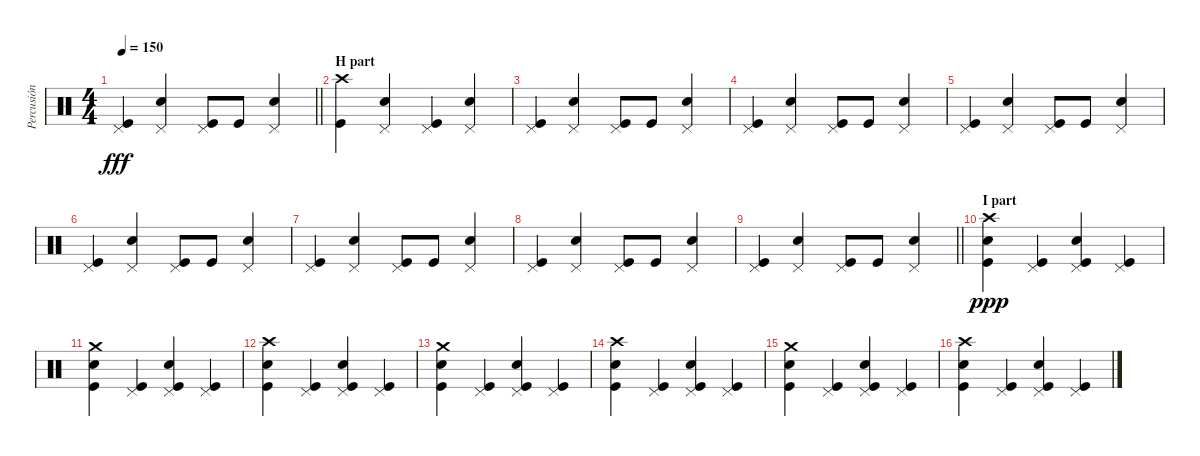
\track ("Percusión" "Percusión") {instrument percussion}
\staff {score}
\articulation defaults
\ts (4 4)
\tempo 150
\clef neutral
\barLineRight lightlight
\ks c
("Pedal Hi-Hat (hit)" "Kick (hit)").4{dy fff} ("Pedal Hi-Hat (hit)" "Electric Snare (hit)").4 ("Pedal Hi-Hat (hit)" "Kick (hit)").8 "Kick (hit)".8 ("Pedal Hi-Hat (hit)" "Electric Snare (hit)").4 |
\section ("" "H part")
("Crash high (hit)" "Kick (hit)").4 ("Pedal Hi-Hat (hit)" "Electric Snare (hit)").4 ("Pedal Hi-Hat (hit)" "Kick (hit)").4 ("Pedal Hi-Hat (hit)" "Electric Snare (hit)").4 |
("Pedal Hi-Hat (hit)" "Kick (hit)").4 ("Pedal Hi-Hat (hit)" "Electric Snare (hit)").4 ("Pedal Hi-Hat (hit)" "Kick (hit)").8 "Kick (hit)".8 ("Pedal Hi-Hat (hit)" "Electric Snare (hit)").4 |
("Pedal Hi-Hat (hit)" "Kick (hit)").4 ("Pedal Hi-Hat (hit)" "Electric Snare (hit)").4 ("Pedal Hi-Hat (hit)" "Kick (hit)").8 "Kick (hit)".8 ("Pedal Hi-Hat (hit)" "Electric Snare (hit)").4 |
("Pedal Hi-Hat (hit)" "Kick (hit)").4 ("Pedal Hi-Hat (hit)" "Electric Snare (hit)").4 ("Pedal Hi-Hat (hit)" "Kick (hit)").8 "Kick (hit)".8 ("Pedal Hi-Hat (hit)" "Electric Snare (hit)").4 |
("Pedal Hi-Hat (hit)" "Kick (hit)").4 ("Pedal Hi-Hat (hit)" "Electric Snare (hit)").4 ("Pedal Hi-Hat (hit)" "Kick (hit)").8 "Kick (hit)".8 ("Pedal Hi-Hat (hit)" "Electric Snare (hit)").4 |
("Pedal Hi-Hat (hit)" "Kick (hit)").4 ("Pedal Hi-Hat (hit)" "Electric Snare (hit)").4 ("Pedal Hi-Hat (hit)" "Kick (hit)").8 "Kick (hit)".8 ("Pedal Hi-Hat (hit)" "Electric Snare (hit)").4 |
("Pedal Hi-Hat (hit)" "Kick (hit)").4 ("Pedal Hi-Hat (hit)" "Electric Snare (hit)").4 ("Pedal Hi-Hat (hit)" "Kick (hit)").8 "Kick (hit)".8 ("Pedal Hi-Hat (hit)" "Electric Snare (hit)").4 |
\barLineRight lightlight
("Pedal Hi-Hat (hit)" "Kick (hit)").4 ("Pedal Hi-Hat (hit)" "Electric Snare (hit)").4 ("Pedal Hi-Hat (hit)" "Kick (hit)").8 "Kick (hit)".8 ("Pedal Hi-Hat (hit)" "Electric Snare (hit)").4 |
\section ("" "I part")
("Crash high (hit)" "Electric Snare (hit)" "Kick (hit)").4{dy ppp} ("Pedal Hi-Hat (hit)" "Kick (hit)").4 ("Pedal Hi-Hat (hit)" "Electric Snare (hit)" "Kick (hit)").4 ("Pedal Hi-Hat (hit)" "Kick (hit)").4 |
("Crash medium (hit)" "Electric Snare (hit)" "Kick (hit)").4 ("Pedal Hi-Hat (hit)" "Kick (hit)").4 ("Pedal Hi-Hat (hit)" "Electric Snare (hit)" "Kick (hit)").4 ("Pedal Hi-Hat (hit)" "Kick (hit)").4 |
("Crash high (hit)" "Electric Snare (hit)" "Kick (hit)").4 ("Pedal Hi-Hat (hit)" "Kick (hit)").4 ("Pedal Hi-Hat (hit)" "Electric Snare (hit)" "Kick (hit)").4 ("Pedal Hi-Hat (hit)" "Kick (hit)").4 |
("Crash medium (hit)" "Electric Snare (hit)" "Kick (hit)").4 ("Pedal Hi-Hat (hit)" "Kick (hit)").4 ("Pedal Hi-Hat (hit)" "Electric Snare (hit)" "Kick (hit)").4 ("Pedal Hi-Hat (hit)" "Kick (hit)").4 |
("Crash high (hit)" "Electric Snare (hit)" "Kick (hit)").4 ("Pedal Hi-Hat (hit)" "Kick (hit)").4 ("Pedal Hi-Hat (hit)" "Electric Snare (hit)" "Kick (hit)").4 ("Pedal Hi-Hat (hit)" "Kick (hit)").4 |
("Crash medium (hit)" "Electric Snare (hit)" "Kick (hit)").4 ("Pedal Hi-Hat (hit)" "Kick (hit)").4 ("Pedal Hi-Hat (hit)" "Electric Snare (hit)" "Kick (hit)").4 ("Pedal Hi-Hat (hit)" "Kick (hit)").4 |
("Crash high (hit)" "Electric Snare (hit)" "Kick (hit)").4 ("Pedal Hi-Hat (hit)" "Kick (hit)").4 ("Pedal Hi-Hat (hit)" "Electric Snare (hit)" "Kick (hit)").4 ("Pedal Hi-Hat (hit)" "Kick (hit)").4
